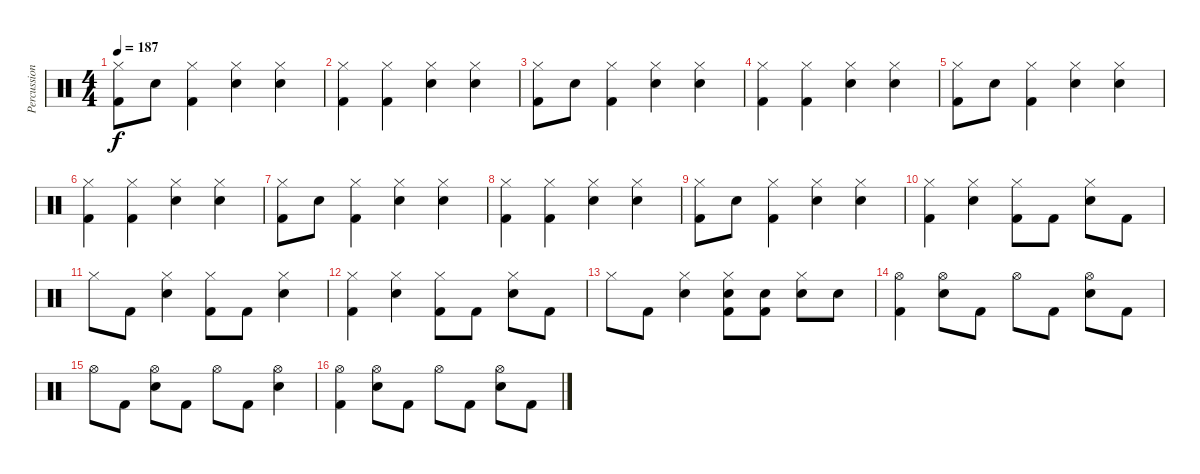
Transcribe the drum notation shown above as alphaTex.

\track ("Percussion" "Percussion") {instrument percussion}
\staff {score}
\articulation defaults
\ts (4 4)
\tempo 187
\clef neutral
\ks c
("Hi-Hat (closed)" "Kick (hit) 2").8{dy f} "Snare (hit) 2".8 ("Hi-Hat (closed)" "Kick (hit) 2").4 ("Hi-Hat (closed)" "Snare (hit) 2").4 ("Hi-Hat (closed)" "Snare (hit) 2").4 |
("Hi-Hat (closed)" "Kick (hit) 2").4 ("Hi-Hat (closed)" "Kick (hit) 2").4 ("Hi-Hat (closed)" "Snare (hit) 2").4 ("Hi-Hat (closed)" "Snare (hit) 2").4 |
("Hi-Hat (closed)" "Kick (hit) 2").8 "Snare (hit) 2".8 ("Hi-Hat (closed)" "Kick (hit) 2").4 ("Hi-Hat (closed)" "Snare (hit) 2").4 ("Hi-Hat (closed)" "Snare (hit) 2").4 |
("Hi-Hat (closed)" "Kick (hit) 2").4 ("Hi-Hat (closed)" "Kick (hit) 2").4 ("Hi-Hat (closed)" "Snare (hit) 2").4 ("Hi-Hat (closed)" "Snare (hit) 2").4 |
("Hi-Hat (closed)" "Kick (hit) 2").8 "Snare (hit) 2".8 ("Hi-Hat (closed)" "Kick (hit) 2").4 ("Hi-Hat (closed)" "Snare (hit) 2").4 ("Hi-Hat (closed)" "Snare (hit) 2").4 |
("Hi-Hat (closed)" "Kick (hit) 2").4 ("Hi-Hat (closed)" "Kick (hit) 2").4 ("Hi-Hat (closed)" "Snare (hit) 2").4 ("Hi-Hat (closed)" "Snare (hit) 2").4 |
("Hi-Hat (closed)" "Kick (hit) 2").8 "Snare (hit) 2".8 ("Hi-Hat (closed)" "Kick (hit) 2").4 ("Hi-Hat (closed)" "Snare (hit) 2").4 ("Hi-Hat (closed)" "Snare (hit) 2").4 |
("Hi-Hat (closed)" "Kick (hit) 2").4 ("Hi-Hat (closed)" "Kick (hit) 2").4 ("Hi-Hat (closed)" "Snare (hit) 2").4 ("Hi-Hat (closed)" "Snare (hit) 2").4 |
("Hi-Hat (closed)" "Kick (hit) 2").8 "Snare (hit) 2".8 ("Hi-Hat (closed)" "Kick (hit) 2").4 ("Hi-Hat (closed)" "Snare (hit) 2").4 ("Hi-Hat (closed)" "Snare (hit) 2").4 |
("Hi-Hat (closed)" "Kick (hit) 2").4 ("Hi-Hat (closed)" "Snare (hit) 2").4 ("Hi-Hat (closed)" "Kick (hit) 2").8 "Kick (hit) 2".8 ("Hi-Hat (closed)" "Snare (hit) 2").8 "Kick (hit) 2".8 |
"Hi-Hat (closed)".8 "Kick (hit) 2".8 ("Hi-Hat (closed)" "Snare (hit) 2").4 ("Hi-Hat (closed)" "Kick (hit) 2").8 "Kick (hit) 2".8 ("Hi-Hat (closed)" "Snare (hit) 2").4 |
("Hi-Hat (closed)" "Kick (hit) 2").4 ("Hi-Hat (closed)" "Snare (hit) 2").4 ("Hi-Hat (closed)" "Kick (hit) 2").8 "Kick (hit) 2".8 ("Hi-Hat (closed)" "Snare (hit) 2").8 "Kick (hit) 2".8 |
"Hi-Hat (closed)".8 "Kick (hit) 2".8 ("Hi-Hat (closed)" "Snare (hit) 2").4 ("Hi-Hat (closed)" "Snare (hit) 2" "Kick (hit) 2").8 ("Snare (hit) 2" "Kick (hit) 2").8 ("Hi-Hat (closed)" "Snare (hit) 2").8 "Snare (hit) 2".8 |
("Hi-Hat (open)" "Kick (hit) 2").4 ("Hi-Hat (open)" "Snare (hit) 2").8 "Kick (hit) 2".8 "Hi-Hat (open)".8 "Kick (hit) 2".8 ("Hi-Hat (open)" "Snare (hit) 2").8 "Kick (hit) 2".8 |
"Hi-Hat (open)".8 "Kick (hit) 2".8 ("Hi-Hat (open)" "Snare (hit) 2").8 "Kick (hit) 2".8 "Hi-Hat (open)".8 "Kick (hit) 2".8 ("Hi-Hat (open)" "Snare (hit) 2").4 |
("Hi-Hat (open)" "Kick (hit) 2").4 ("Hi-Hat (open)" "Snare (hit) 2").8 "Kick (hit) 2".8 "Hi-Hat (open)".8 "Kick (hit) 2".8 ("Hi-Hat (open)" "Snare (hit) 2").8 "Kick (hit) 2".8
